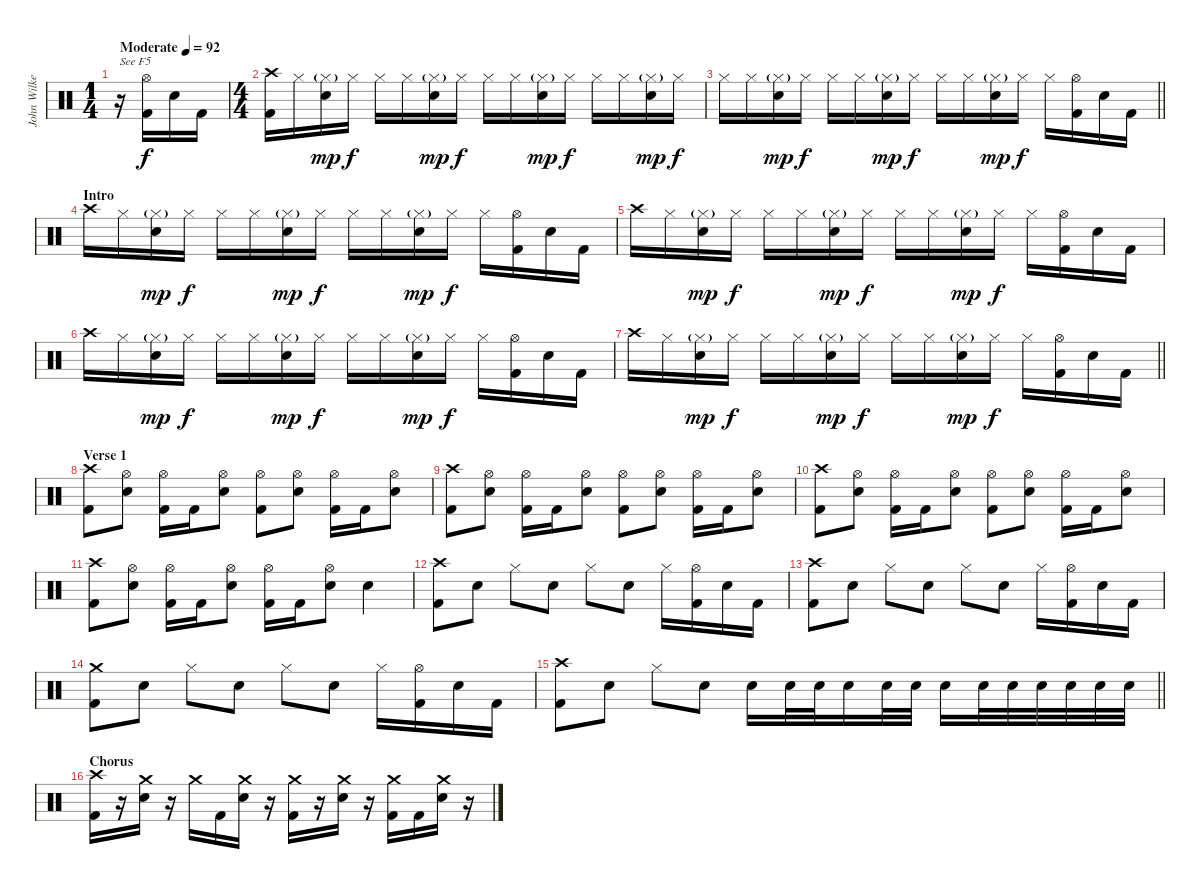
\track ("John Wilkes (Percussion)" "John Wilke") {instrument percussion}
\staff {score}
\articulation defaults
\ts (1 4)
\tempo (92 "Moderate")
\clef neutral
\ks c
r.16{txt "See F5" dy f} ("Hi-Hat (open)" "Kick (hit) 2").16 "Electric Snare (hit)".16 "Kick (hit) 2".16 |
\ts (4 4)
("Crash high (hit)" "Kick (hit) 2").16 "Hi-Hat (closed)".16 ("Hi-Hat (closed)"{g} "Electric Snare (hit)").16{dy mp} "Hi-Hat (closed)".16{dy f} "Hi-Hat (closed)".16 "Hi-Hat (closed)".16 ("Hi-Hat (closed)"{g} "Electric Snare (hit)").16{dy mp} "Hi-Hat (closed)".16{dy f} "Hi-Hat (closed)".16 "Hi-Hat (closed)".16 ("Hi-Hat (closed)"{g} "Electric Snare (hit)").16{dy mp} "Hi-Hat (closed)".16{dy f} "Hi-Hat (closed)".16 "Hi-Hat (closed)".16 ("Hi-Hat (closed)"{g} "Electric Snare (hit)").16{dy mp} "Hi-Hat (closed)".16{dy f} |
\barLineRight lightlight "Hi-Hat (closed)".16 "Hi-Hat (closed)".16
("Hi-Hat (closed)"{g} "Electric Snare (hit)").16{dy mp} "Hi-Hat (closed)".16{dy f} "Hi-Hat (closed)".16 "Hi-Hat (closed)".16 ("Hi-Hat (closed)"{g} "Electric Snare (hit)").16{dy mp} "Hi-Hat (closed)".16{dy f} "Hi-Hat (closed)".16 "Hi-Hat (closed)".16 ("Hi-Hat (closed)"{g} "Electric Snare (hit)").16{dy mp} "Hi-Hat (closed)".16{dy f} "Hi-Hat (closed)".16 ("Hi-Hat (open)" "Kick (hit) 2").16 "Electric Snare (hit)".16 "Kick (hit) 2".16 |
\section ("" "Intro")
"Crash high (hit)".16 "Hi-Hat (closed)".16 ("Hi-Hat (closed)"{g} "Electric Snare (hit)").16{dy mp} "Hi-Hat (closed)".16{dy f} "Hi-Hat (closed)".16 "Hi-Hat (closed)".16 ("Hi-Hat (closed)"{g} "Electric Snare (hit)").16{dy mp} "Hi-Hat (closed)".16{dy f} "Hi-Hat (closed)".16 "Hi-Hat (closed)".16 ("Hi-Hat (closed)"{g} "Electric Snare (hit)").16{dy mp} "Hi-Hat (closed)".16{dy f} "Hi-Hat (closed)".16 ("Hi-Hat (open)" "Kick (hit) 2").16 "Electric Snare (hit)".16 "Kick (hit) 2".16 |
"Crash high (hit)".16 "Hi-Hat (closed)".16 ("Hi-Hat (closed)"{g} "Electric Snare (hit)").16{dy mp} "Hi-Hat (closed)".16{dy f} "Hi-Hat (closed)".16 "Hi-Hat (closed)".16 ("Hi-Hat (closed)"{g} "Electric Snare (hit)").16{dy mp} "Hi-Hat (closed)".16{dy f} "Hi-Hat (closed)".16 "Hi-Hat (closed)".16 ("Hi-Hat (closed)"{g} "Electric Snare (hit)").16{dy mp} "Hi-Hat (closed)".16{dy f} "Hi-Hat (closed)".16 ("Hi-Hat (open)" "Kick (hit) 2").16 "Electric Snare (hit)".16 "Kick (hit) 2".16 |
"Crash high (hit)".16 "Hi-Hat (closed)".16 ("Hi-Hat (closed)"{g} "Electric Snare (hit)").16{dy mp} "Hi-Hat (closed)".16{dy f} "Hi-Hat (closed)".16 "Hi-Hat (closed)".16 ("Hi-Hat (closed)"{g} "Electric Snare (hit)").16{dy mp} "Hi-Hat (closed)".16{dy f} "Hi-Hat (closed)".16 "Hi-Hat (closed)".16 ("Hi-Hat (closed)"{g} "Electric Snare (hit)").16{dy mp} "Hi-Hat (closed)".16{dy f} "Hi-Hat (closed)".16 ("Hi-Hat (open)" "Kick (hit) 2").16 "Electric Snare (hit)".16 "Kick (hit) 2".16 |
\barLineRight lightlight "Crash high (hit)".16 "Hi-Hat (closed)".16
("Hi-Hat (closed)"{g} "Electric Snare (hit)").16{dy mp} "Hi-Hat (closed)".16{dy f} "Hi-Hat (closed)".16 "Hi-Hat (closed)".16 ("Hi-Hat (closed)"{g} "Electric Snare (hit)").16{dy mp} "Hi-Hat (closed)".16{dy f} "Hi-Hat (closed)".16 "Hi-Hat (closed)".16 ("Hi-Hat (closed)"{g} "Electric Snare (hit)").16{dy mp} "Hi-Hat (closed)".16{dy f} "Hi-Hat (closed)".16 ("Hi-Hat (open)" "Kick (hit) 2").16 "Electric Snare (hit)".16 "Kick (hit) 2".16 |
\section ("" "Verse 1")
("Crash high (hit)" "Kick (hit) 2").8 ("Hi-Hat (open)" "Electric Snare (hit)").8 ("Hi-Hat (open)" "Kick (hit) 2").16 "Kick (hit) 2".16 ("Hi-Hat (open)" "Electric Snare (hit)").8 ("Hi-Hat (open)" "Kick (hit) 2").8 ("Hi-Hat (open)" "Electric Snare (hit)").8 ("Hi-Hat (open)" "Kick (hit) 2").16 "Kick (hit) 2".16 ("Hi-Hat (open)" "Electric Snare (hit)").8 |
("Crash high (hit)" "Kick (hit) 2").8 ("Hi-Hat (open)" "Electric Snare (hit)").8 ("Hi-Hat (open)" "Kick (hit) 2").16 "Kick (hit) 2".16 ("Hi-Hat (open)" "Electric Snare (hit)").8 ("Hi-Hat (open)" "Kick (hit) 2").8 ("Hi-Hat (open)" "Electric Snare (hit)").8 ("Hi-Hat (open)" "Kick (hit) 2").16 "Kick (hit) 2".16 ("Hi-Hat (open)" "Electric Snare (hit)").8 |
("Crash high (hit)" "Kick (hit) 2").8 ("Hi-Hat (open)" "Electric Snare (hit)").8 ("Hi-Hat (open)" "Kick (hit) 2").16 "Kick (hit) 2".16 ("Hi-Hat (open)" "Electric Snare (hit)").8 ("Hi-Hat (open)" "Kick (hit) 2").8 ("Hi-Hat (open)" "Electric Snare (hit)").8 ("Hi-Hat (open)" "Kick (hit) 2").16 "Kick (hit) 2".16 ("Hi-Hat (open)" "Electric Snare (hit)").8 |
("Crash high (hit)" "Kick (hit) 2").8 ("Hi-Hat (open)" "Electric Snare (hit)").8 ("Hi-Hat (open)" "Kick (hit) 2").16 "Kick (hit) 2".16 ("Hi-Hat (open)" "Electric Snare (hit)").8 ("Hi-Hat (open)" "Kick (hit) 2").16 "Kick (hit) 2".16 ("Hi-Hat (open)" "Electric Snare (hit)").8 "Electric Snare (hit)".4 |
("Crash high (hit)" "Kick (hit) 2").8 "Electric Snare (hit)".8 "Hi-Hat (closed)".8 "Electric Snare (hit)".8 "Hi-Hat (closed)".8 "Electric Snare (hit)".8 "Hi-Hat (closed)".16 ("Hi-Hat (open)" "Kick (hit) 2").16 "Electric Snare (hit)".16 "Kick (hit) 2".16 |
("Crash high (hit)" "Kick (hit) 2").8 "Electric Snare (hit)".8 "Hi-Hat (closed)".8 "Electric Snare (hit)".8 "Hi-Hat (closed)".8 "Electric Snare (hit)".8 "Hi-Hat (closed)".16 ("Hi-Hat (open)" "Kick (hit) 2").16 "Electric Snare (hit)".16 "Kick (hit) 2".16 |
("Crash medium (hit)" "Kick (hit) 2").8 "Electric Snare (hit)".8 "Hi-Hat (closed)".8 "Electric Snare (hit)".8 "Hi-Hat (closed)".8 "Electric Snare (hit)".8 "Hi-Hat (closed)".16 ("Hi-Hat (open)" "Kick (hit) 2").16 "Electric Snare (hit)".16 "Kick (hit) 2".16 |
\barLineRight lightlight
("Crash high (hit)" "Kick (hit) 2").8 "Electric Snare (hit)".8 "Hi-Hat (closed)".8 "Electric Snare (hit)".8 "Electric Snare (hit)".16 "Electric Snare (hit)".32 "Electric Snare (hit)".32 "Electric Snare (hit)".16 "Electric Snare (hit)".32 "Electric Snare (hit)".32 "Electric Snare (hit)".16 "Electric Snare (hit)".32 "Electric Snare (hit)".32 "Electric Snare (hit)".32 "Electric Snare (hit)".32 "Electric Snare (hit)".32 "Electric Snare (hit)".32 |
\section ("" "Chorus")
("Crash high (hit)" "Kick (hit) 2").16 r.16 ("Crash medium (hit)" "Electric Snare (hit)").16 r.16 "Crash medium (hit)".16 "Kick (hit) 2".16 ("Crash medium (hit)" "Electric Snare (hit)").16 r.16 ("Crash medium (hit)" "Kick (hit) 2").16 r.16 ("Crash medium (hit)" "Electric Snare (hit)").16 r.16 ("Crash medium (hit)" "Kick (hit) 2").16 "Kick (hit) 2".16 ("Crash medium (hit)" "Electric Snare (hit)").16 r.16
